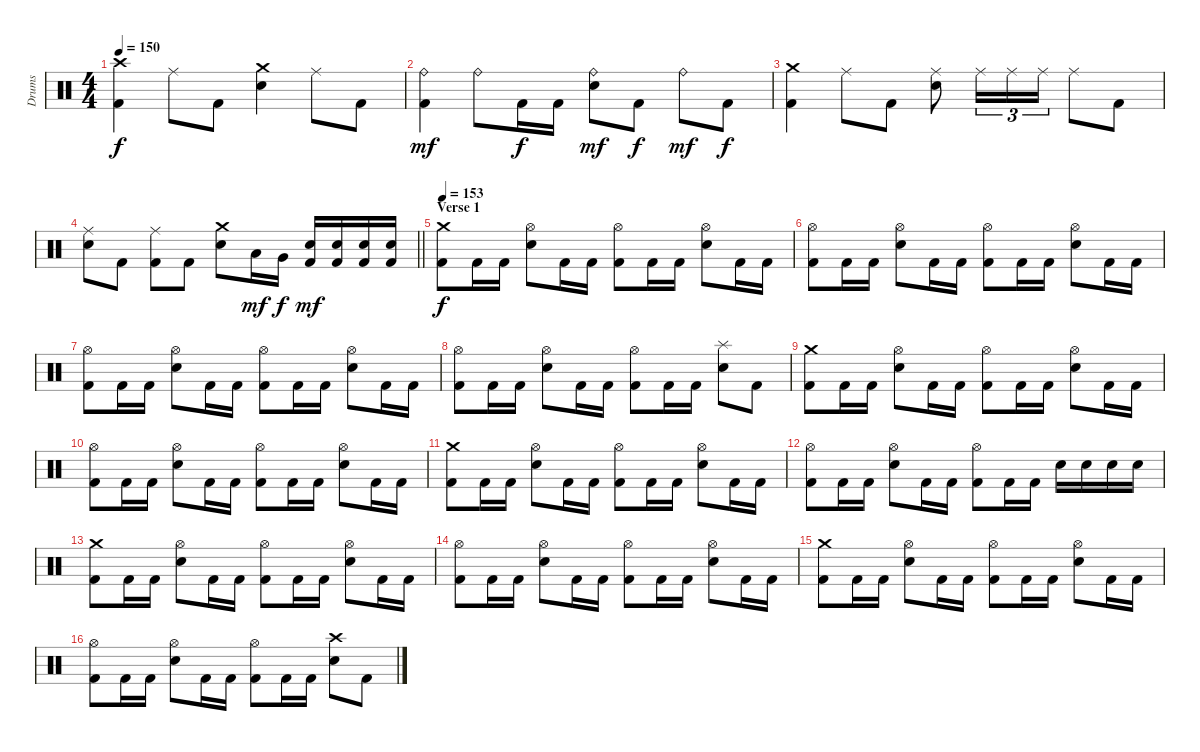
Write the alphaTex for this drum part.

\track ("Drums" "Drums") {instrument percussion}
\staff
\articulation defaults
\ts (4 4)
\tempo 150
\clef neutral
\ks c
("Kick (hit) 2" "Crash high (hit)").4{dy f} "Ride (middle)".8 "Kick (hit) 2".8 ("Electric Snare (hit)" "Crash medium (hit)").4 "Ride (middle)".8 "Kick (hit) 2".8 |
("Kick (hit) 2" "Ride (bell)").4{dy mf} "Ride (bell)".8 "Kick (hit) 2".16{dy f} "Kick (hit) 2".16 ("Electric Snare (hit)" "Ride (bell)").8{dy mf} "Kick (hit) 2".8{dy f} "Ride (bell)".8{dy mf} "Kick (hit) 2".8{dy f} |
("Kick (hit) 2" "Crash medium (hit)").4 "Ride (middle)".8 "Kick (hit) 2".8 ("Electric Snare (hit)" "Ride (middle)").8 "Ride (middle)".16{tu (3 2)} "Ride (middle)".16{tu (3 2)} "Ride (middle)".16{tu (3 2)} "Ride (middle)".8 "Kick (hit) 2".8 |
\barLineRight lightlight
("Electric Snare (hit)" "Ride (middle)").8 "Kick (hit) 2".8 ("Kick (hit) 2" "Ride (middle)").8 "Kick (hit) 2".8 ("Electric Snare (hit)" "Crash medium (hit)").8 "Low Tom (hit)".16{dy mf} "Very Low Tom (hit)".16{dy f} ("Kick (hit) 2" "Electric Snare (hit)").16{dy mf} ("Kick (hit) 2" "Electric Snare (hit)").16 ("Kick (hit) 2" "Electric Snare (hit)").16 ("Kick (hit) 2" "Electric Snare (hit)").16 |
\section ("" "Verse 1")
\tempo 153
("Kick (hit) 2" "Crash medium (hit)").8{dy f} "Kick (hit) 2".16 "Kick (hit) 2".16 ("Electric Snare (hit)" "Hi-Hat (open)").8 "Kick (hit) 2".16 "Kick (hit) 2".16 ("Kick (hit) 2" "Hi-Hat (open)").8 "Kick (hit) 2".16 "Kick (hit) 2".16 ("Electric Snare (hit)" "Hi-Hat (open)").8 "Kick (hit) 2".16 "Kick (hit) 2".16 |
("Kick (hit) 2" "Hi-Hat (open)").8 "Kick (hit) 2".16 "Kick (hit) 2".16 ("Electric Snare (hit)" "Hi-Hat (open)").8 "Kick (hit) 2".16 "Kick (hit) 2".16 ("Kick (hit) 2" "Hi-Hat (open)").8 "Kick (hit) 2".16 "Kick (hit) 2".16 ("Electric Snare (hit)" "Hi-Hat (open)").8 "Kick (hit) 2".16 "Kick (hit) 2".16 |
("Kick (hit) 2" "Hi-Hat (open)").8 "Kick (hit) 2".16 "Kick (hit) 2".16 ("Electric Snare (hit)" "Hi-Hat (open)").8 "Kick (hit) 2".16 "Kick (hit) 2".16 ("Kick (hit) 2" "Hi-Hat (open)").8 "Kick (hit) 2".16 "Kick (hit) 2".16 ("Electric Snare (hit)" "Hi-Hat (open)").8 "Kick (hit) 2".16 "Kick (hit) 2".16 |
("Kick (hit) 2" "Hi-Hat (open)").8 "Kick (hit) 2".16 "Kick (hit) 2".16 ("Electric Snare (hit)" "Hi-Hat (open)").8 "Kick (hit) 2".16 "Kick (hit) 2".16 ("Kick (hit) 2" "Hi-Hat (open)").8 "Kick (hit) 2".16 "Kick (hit) 2".16 ("Electric Snare (hit)" "Splash (hit)").8 "Kick (hit) 2".8 |
("Kick (hit) 2" "Crash medium (hit)").8 "Kick (hit) 2".16 "Kick (hit) 2".16 ("Electric Snare (hit)" "Hi-Hat (open)").8 "Kick (hit) 2".16 "Kick (hit) 2".16 ("Kick (hit) 2" "Hi-Hat (open)").8 "Kick (hit) 2".16 "Kick (hit) 2".16 ("Electric Snare (hit)" "Hi-Hat (open)").8 "Kick (hit) 2".16 "Kick (hit) 2".16 |
("Kick (hit) 2" "Hi-Hat (open)").8 "Kick (hit) 2".16 "Kick (hit) 2".16 ("Electric Snare (hit)" "Hi-Hat (open)").8 "Kick (hit) 2".16 "Kick (hit) 2".16 ("Kick (hit) 2" "Hi-Hat (open)").8 "Kick (hit) 2".16 "Kick (hit) 2".16 ("Electric Snare (hit)" "Hi-Hat (open)").8 "Kick (hit) 2".16 "Kick (hit) 2".16 |
("Kick (hit) 2" "Crash medium (hit)").8 "Kick (hit) 2".16 "Kick (hit) 2".16 ("Electric Snare (hit)" "Hi-Hat (open)").8 "Kick (hit) 2".16 "Kick (hit) 2".16 ("Kick (hit) 2" "Hi-Hat (open)").8 "Kick (hit) 2".16 "Kick (hit) 2".16 ("Electric Snare (hit)" "Hi-Hat (open)").8 "Kick (hit) 2".16 "Kick (hit) 2".16 |
("Kick (hit) 2" "Hi-Hat (open)").8 "Kick (hit) 2".16 "Kick (hit) 2".16 ("Electric Snare (hit)" "Hi-Hat (open)").8 "Kick (hit) 2".16 "Kick (hit) 2".16 ("Kick (hit) 2" "Hi-Hat (open)").8 "Kick (hit) 2".16 "Kick (hit) 2".16 "Electric Snare (hit)".16 "Electric Snare (hit)".16 "Electric Snare (hit)".16 "Electric Snare (hit)".16 |
("Kick (hit) 2" "Crash medium (hit)").8 "Kick (hit) 2".16 "Kick (hit) 2".16 ("Electric Snare (hit)" "Hi-Hat (open)").8 "Kick (hit) 2".16 "Kick (hit) 2".16 ("Kick (hit) 2" "Hi-Hat (open)").8 "Kick (hit) 2".16 "Kick (hit) 2".16 ("Electric Snare (hit)" "Hi-Hat (open)").8 "Kick (hit) 2".16 "Kick (hit) 2".16 |
("Kick (hit) 2" "Hi-Hat (open)").8 "Kick (hit) 2".16 "Kick (hit) 2".16 ("Electric Snare (hit)" "Hi-Hat (open)").8 "Kick (hit) 2".16 "Kick (hit) 2".16 ("Kick (hit) 2" "Hi-Hat (open)").8 "Kick (hit) 2".16 "Kick (hit) 2".16 ("Electric Snare (hit)" "Hi-Hat (open)").8 "Kick (hit) 2".16 "Kick (hit) 2".16 |
("Kick (hit) 2" "Crash medium (hit)").8 "Kick (hit) 2".16 "Kick (hit) 2".16 ("Electric Snare (hit)" "Hi-Hat (open)").8 "Kick (hit) 2".16 "Kick (hit) 2".16 ("Kick (hit) 2" "Hi-Hat (open)").8 "Kick (hit) 2".16 "Kick (hit) 2".16 ("Electric Snare (hit)" "Hi-Hat (open)").8 "Kick (hit) 2".16 "Kick (hit) 2".16 |
("Kick (hit) 2" "Hi-Hat (open)").8 "Kick (hit) 2".16 "Kick (hit) 2".16 ("Electric Snare (hit)" "Hi-Hat (open)").8 "Kick (hit) 2".16 "Kick (hit) 2".16 ("Kick (hit) 2" "Hi-Hat (open)").8 "Kick (hit) 2".16 "Kick (hit) 2".16 ("Electric Snare (hit)" "Crash high (hit)").8 "Kick (hit) 2".8
